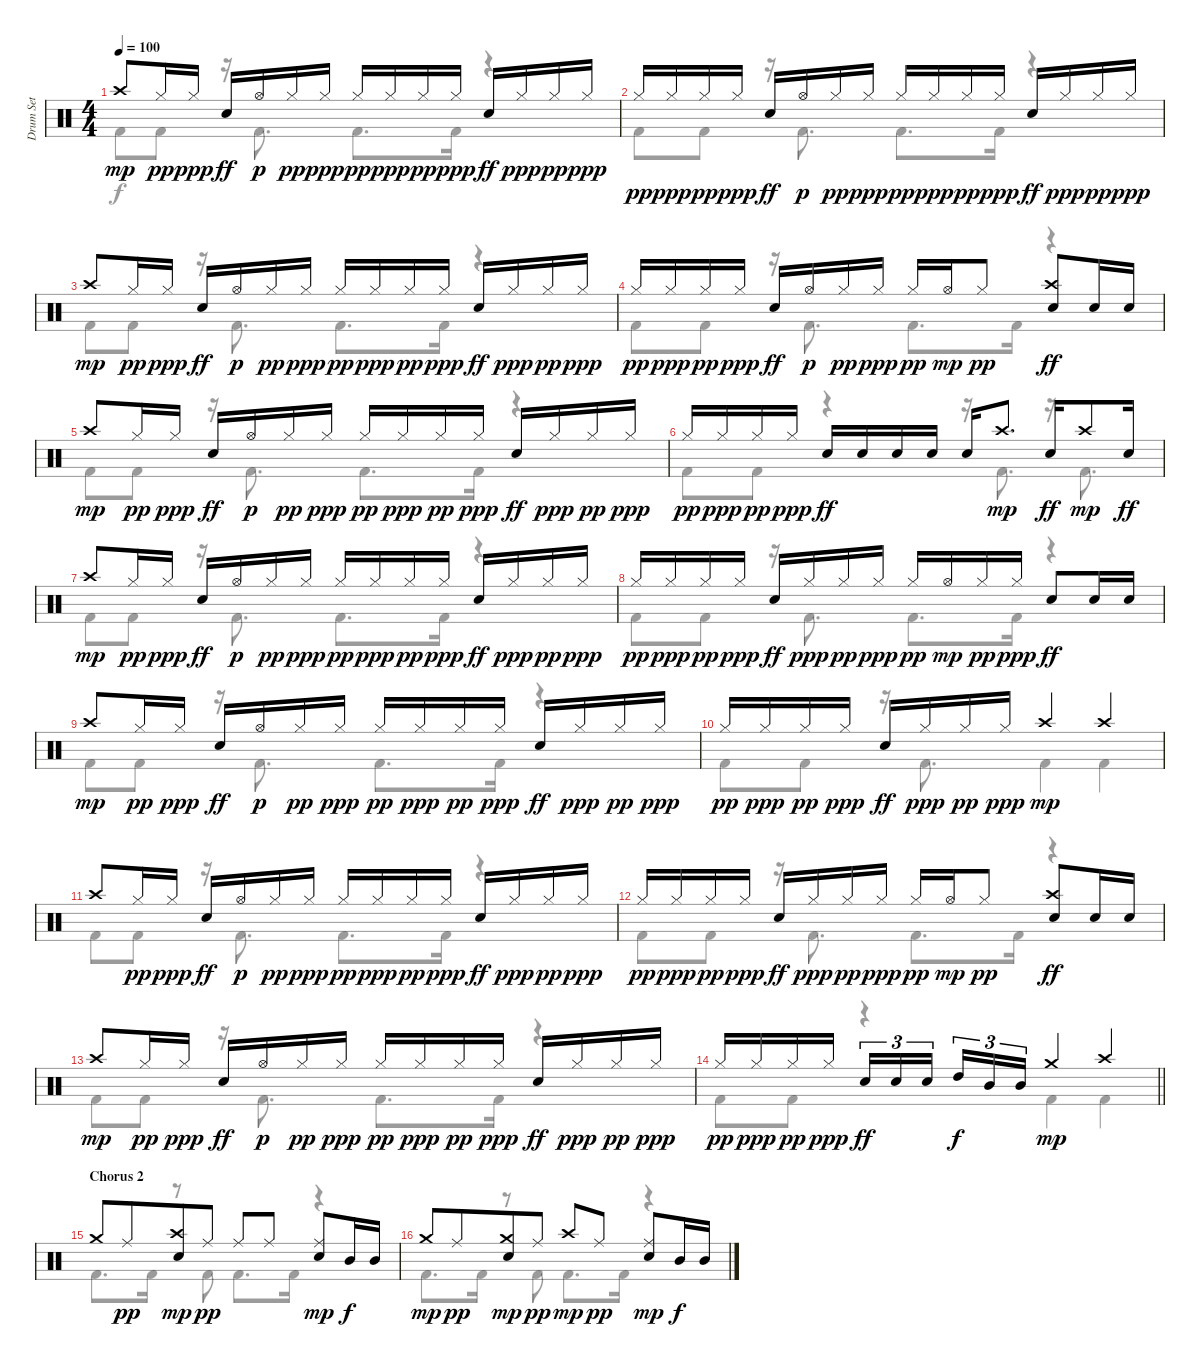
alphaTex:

\track ("Drum Set" "Drum Set") {instrument percussion}
\staff {score}
\articulation defaults
\voice
\ts (4 4)
\tempo 100
\clef neutral
\ks c "Crash high (hit)".8{dy mp} "Hi-Hat (closed)".16{dy pp} "Hi-Hat (closed)".16{dy ppp} "Electric Snare (hit)".16{dy ff} "Hi-Hat (open)".16{dy p} "Hi-Hat (closed)".16{dy pp} "Hi-Hat (closed)".16{dy ppp} "Hi-Hat (closed)".16{dy pp} "Hi-Hat (closed)".16{dy ppp} "Hi-Hat (closed)".16{dy pp} "Hi-Hat (closed)".16{dy ppp} "Electric Snare (hit)".16{dy ff} "Hi-Hat (closed)".16{dy ppp} "Hi-Hat (closed)".16{dy pp} "Hi-Hat (closed)".16{dy ppp}
|
"Hi-Hat (closed)".16{dy pp} "Hi-Hat (closed)".16{dy ppp} "Hi-Hat (closed)".16{dy pp} "Hi-Hat (closed)".16{dy ppp} "Electric Snare (hit)".16{dy ff} "Hi-Hat (open)".16{dy p} "Hi-Hat (closed)".16{dy pp} "Hi-Hat (closed)".16{dy ppp} "Hi-Hat (closed)".16{dy pp} "Hi-Hat (closed)".16{dy ppp} "Hi-Hat (closed)".16{dy pp} "Hi-Hat (closed)".16{dy ppp} "Electric Snare (hit)".16{dy ff} "Hi-Hat (closed)".16{dy ppp} "Hi-Hat (closed)".16{dy pp} "Hi-Hat (closed)".16{dy ppp} |
"Crash high (hit)".8{dy mp} "Hi-Hat (closed)".16{dy pp} "Hi-Hat (closed)".16{dy ppp} "Electric Snare (hit)".16{dy ff} "Hi-Hat (open)".16{dy p} "Hi-Hat (closed)".16{dy pp} "Hi-Hat (closed)".16{dy ppp} "Hi-Hat (closed)".16{dy pp} "Hi-Hat (closed)".16{dy ppp} "Hi-Hat (closed)".16{dy pp} "Hi-Hat (closed)".16{dy ppp} "Electric Snare (hit)".16{dy ff} "Hi-Hat (closed)".16{dy ppp} "Hi-Hat (closed)".16{dy pp} "Hi-Hat (closed)".16{dy ppp} |
"Hi-Hat (closed)".16{dy pp} "Hi-Hat (closed)".16{dy ppp} "Hi-Hat (closed)".16{dy pp} "Hi-Hat (closed)".16{dy ppp} "Electric Snare (hit)".16{dy ff} "Hi-Hat (open)".16{dy p} "Hi-Hat (closed)".16{dy pp} "Hi-Hat (closed)".16{dy ppp} "Hi-Hat (closed)".16{dy pp} "Hi-Hat (open)".16{dy mp} "Hi-Hat (closed)".8{dy pp} ("Crash high (hit)" "Electric Snare (hit)").8{dy ff} "Electric Snare (hit)".16 "Electric Snare (hit)".16 |
"Crash high (hit)".8{dy mp} "Hi-Hat (closed)".16{dy pp} "Hi-Hat (closed)".16{dy ppp} "Electric Snare (hit)".16{dy ff} "Hi-Hat (open)".16{dy p} "Hi-Hat (closed)".16{dy pp} "Hi-Hat (closed)".16{dy ppp} "Hi-Hat (closed)".16{dy pp} "Hi-Hat (closed)".16{dy ppp} "Hi-Hat (closed)".16{dy pp} "Hi-Hat (closed)".16{dy ppp} "Electric Snare (hit)".16{dy ff} "Hi-Hat (closed)".16{dy ppp} "Hi-Hat (closed)".16{dy pp} "Hi-Hat (closed)".16{dy ppp} |
"Hi-Hat (closed)".16{dy pp} "Hi-Hat (closed)".16{dy ppp} "Hi-Hat (closed)".16{dy pp} "Hi-Hat (closed)".16{dy ppp} "Electric Snare (hit)".16{dy ff} "Electric Snare (hit)".16 "Electric Snare (hit)".16 "Electric Snare (hit)".16 "Electric Snare (hit)".16 "Crash high (hit)".8{d dy mp} "Electric Snare (hit)".16{dy ff} "Crash high (hit)".8{dy mp} "Electric Snare (hit)".16{dy ff} |
"Crash high (hit)".8{dy mp} "Hi-Hat (closed)".16{dy pp} "Hi-Hat (closed)".16{dy ppp} "Electric Snare (hit)".16{dy ff} "Hi-Hat (open)".16{dy p} "Hi-Hat (closed)".16{dy pp} "Hi-Hat (closed)".16{dy ppp} "Hi-Hat (closed)".16{dy pp} "Hi-Hat (closed)".16{dy ppp} "Hi-Hat (closed)".16{dy pp} "Hi-Hat (closed)".16{dy ppp} "Electric Snare (hit)".16{dy ff} "Hi-Hat (closed)".16{dy ppp} "Hi-Hat (closed)".16{dy pp} "Hi-Hat (closed)".16{dy ppp} |
"Hi-Hat (closed)".16{dy pp} "Hi-Hat (closed)".16{dy ppp} "Hi-Hat (closed)".16{dy pp} "Hi-Hat (closed)".16{dy ppp} "Electric Snare (hit)".16{dy ff} "Hi-Hat (closed)".16{dy ppp} "Hi-Hat (closed)".16{dy pp} "Hi-Hat (closed)".16{dy ppp} "Hi-Hat (closed)".16{dy pp} "Hi-Hat (open)".16{dy mp} "Hi-Hat (closed)".16{dy pp} "Hi-Hat (closed)".16{dy ppp} "Electric Snare (hit)".8{dy ff} "Electric Snare (hit)".16 "Electric Snare (hit)".16 |
"Crash high (hit)".8{dy mp} "Hi-Hat (closed)".16{dy pp} "Hi-Hat (closed)".16{dy ppp} "Electric Snare (hit)".16{dy ff} "Hi-Hat (open)".16{dy p} "Hi-Hat (closed)".16{dy pp} "Hi-Hat (closed)".16{dy ppp} "Hi-Hat (closed)".16{dy pp} "Hi-Hat (closed)".16{dy ppp} "Hi-Hat (closed)".16{dy pp} "Hi-Hat (closed)".16{dy ppp} "Electric Snare (hit)".16{dy ff} "Hi-Hat (closed)".16{dy ppp} "Hi-Hat (closed)".16{dy pp} "Hi-Hat (closed)".16{dy ppp} |
"Hi-Hat (closed)".16{dy pp} "Hi-Hat (closed)".16{dy ppp} "Hi-Hat (closed)".16{dy pp} "Hi-Hat (closed)".16{dy ppp} "Electric Snare (hit)".16{dy ff} "Hi-Hat (closed)".16{dy ppp} "Hi-Hat (closed)".16{dy pp} "Hi-Hat (closed)".16{dy ppp} "Crash high (hit)".4{dy mp} "Crash high (hit)".4 |
"Crash high (hit)".8 "Hi-Hat (closed)".16{dy pp} "Hi-Hat (closed)".16{dy ppp} "Electric Snare (hit)".16{dy ff} "Hi-Hat (open)".16{dy p} "Hi-Hat (closed)".16{dy pp} "Hi-Hat (closed)".16{dy ppp} "Hi-Hat (closed)".16{dy pp} "Hi-Hat (closed)".16{dy ppp} "Hi-Hat (closed)".16{dy pp} "Hi-Hat (closed)".16{dy ppp} "Electric Snare (hit)".16{dy ff} "Hi-Hat (closed)".16{dy ppp} "Hi-Hat (closed)".16{dy pp} "Hi-Hat (closed)".16{dy ppp} |
"Hi-Hat (closed)".16{dy pp} "Hi-Hat (closed)".16{dy ppp} "Hi-Hat (closed)".16{dy pp} "Hi-Hat (closed)".16{dy ppp} "Electric Snare (hit)".16{dy ff} "Hi-Hat (closed)".16{dy ppp} "Hi-Hat (closed)".16{dy pp} "Hi-Hat (closed)".16{dy ppp} "Hi-Hat (closed)".16{dy pp} "Hi-Hat (open)".16{dy mp} "Hi-Hat (closed)".8{dy pp} ("Crash high (hit)" "Electric Snare (hit)").8{dy ff} "Electric Snare (hit)".16 "Electric Snare (hit)".16 |
"Crash high (hit)".8{dy mp} "Hi-Hat (closed)".16{dy pp} "Hi-Hat (closed)".16{dy ppp} "Electric Snare (hit)".16{dy ff} "Hi-Hat (open)".16{dy p} "Hi-Hat (closed)".16{dy pp} "Hi-Hat (closed)".16{dy ppp} "Hi-Hat (closed)".16{dy pp} "Hi-Hat (closed)".16{dy ppp} "Hi-Hat (closed)".16{dy pp} "Hi-Hat (closed)".16{dy ppp} "Electric Snare (hit)".16{dy ff} "Hi-Hat (closed)".16{dy ppp} "Hi-Hat (closed)".16{dy pp} "Hi-Hat (closed)".16{dy ppp} |
\barLineRight lightlight "Hi-Hat (closed)".16{dy pp} "Hi-Hat (closed)".16{dy ppp} "Hi-Hat (closed)".16{dy pp} "Hi-Hat (closed)".16{dy ppp} "Electric Snare (hit)".16{tu (3 2) dy ff} "Electric Snare (hit)".16{tu (3 2)} "Electric Snare (hit)".16{tu (3 2) beam splitsecondary} "High Tom (hit)".16{tu (3 2) dy f} "Mid Tom (hit)".16{tu (3 2)} "Mid Tom (hit)".16{tu (3 2)} "Crash medium (hit)".4{dy mp} "Crash high (hit)".4
|
\section ("" "Chorus 2")
"Crash medium (hit)".8 "Ride (middle)".8{dy pp beam merge} ("Electric Snare (hit)" "Crash high (hit)").8{dy mp} "Ride (middle)".8{dy pp} "Ride (middle)".8 "Ride (middle)".8 ("Electric Snare (hit)" "Ride (middle)").8{dy mp} "Mid Tom (hit)".16{dy f} "Mid Tom (hit)".16 |
"Crash medium (hit)".8{dy mp} "Ride (middle)".8{dy pp beam merge} ("Electric Snare (hit)" "Crash medium (hit)").8{dy mp} "Ride (middle)".8{dy pp} "Crash high (hit)".8{dy mp} "Ride (middle)".8{dy pp} ("Electric Snare (hit)" "Ride (middle)").8{dy mp} "Mid Tom (hit)".16{dy f} "Mid Tom (hit)".16
\voice
\clef neutral
\ottava regular
\simile none
\ks c "Kick (hit) 2".8{dy f} "Kick (hit) 2".8
r.16 "Kick (hit) 2".8{d} "Kick (hit) 2".8{d} "Kick (hit) 2".16 r.4 |
"Kick (hit) 2".8 "Kick (hit) 2".8 r.16 "Kick (hit) 2".8{d} "Kick (hit) 2".8{d} "Kick (hit) 2".16 r.4 |
"Kick (hit) 2".8 "Kick (hit) 2".8 r.16 "Kick (hit) 2".8{d} "Kick (hit) 2".8{d} "Kick (hit) 2".16 r.4 |
"Kick (hit) 2".8 "Kick (hit) 2".8 r.16 "Kick (hit) 2".8{d} "Kick (hit) 2".8{d} "Kick (hit) 2".16 r.4 |
"Kick (hit) 2".8 "Kick (hit) 2".8 r.16 "Kick (hit) 2".8{d} "Kick (hit) 2".8{d} "Kick (hit) 2".16 r.4 |
"Kick (hit) 2".8 "Kick (hit) 2".8 r.4 r.16 "Kick (hit) 2".8{d} r.16 "Kick (hit) 2".8{d} |
"Kick (hit) 2".8 "Kick (hit) 2".8 r.16 "Kick (hit) 2".8{d} "Kick (hit) 2".8{d} "Kick (hit) 2".16 r.4 |
"Kick (hit) 2".8 "Kick (hit) 2".8 r.16 "Kick (hit) 2".8{d} "Kick (hit) 2".8{d} "Kick (hit) 2".16 r.4 |
"Kick (hit) 2".8 "Kick (hit) 2".8 r.16 "Kick (hit) 2".8{d} "Kick (hit) 2".8{d} "Kick (hit) 2".16 r.4 |
"Kick (hit) 2".8 "Kick (hit) 2".8 r.16 "Kick (hit) 2".8{d} "Kick (hit) 2".4 "Kick (hit) 2".4 |
"Kick (hit) 2".8 "Kick (hit) 2".8 r.16 "Kick (hit) 2".8{d} "Kick (hit) 2".8{d} "Kick (hit) 2".16 r.4 |
"Kick (hit) 2".8 "Kick (hit) 2".8 r.16 "Kick (hit) 2".8{d} "Kick (hit) 2".8{d} "Kick (hit) 2".16 r.4 |
"Kick (hit) 2".8 "Kick (hit) 2".8 r.16 "Kick (hit) 2".8{d} "Kick (hit) 2".8{d} "Kick (hit) 2".16 r.4 |
\barLineRight lightlight "Kick (hit) 2".8 "Kick (hit) 2".8
r.4 "Kick (hit) 2".4 "Kick (hit) 2".4 |
"Kick (hit) 2".8{d} "Kick (hit) 2".16 r.8 "Kick (hit) 2".8 "Kick (hit) 2".8{d} "Kick (hit) 2".16 r.4 |
"Kick (hit) 2".8{d} "Kick (hit) 2".16 r.8 "Kick (hit) 2".8 "Kick (hit) 2".8{d} "Kick (hit) 2".16 r.4
